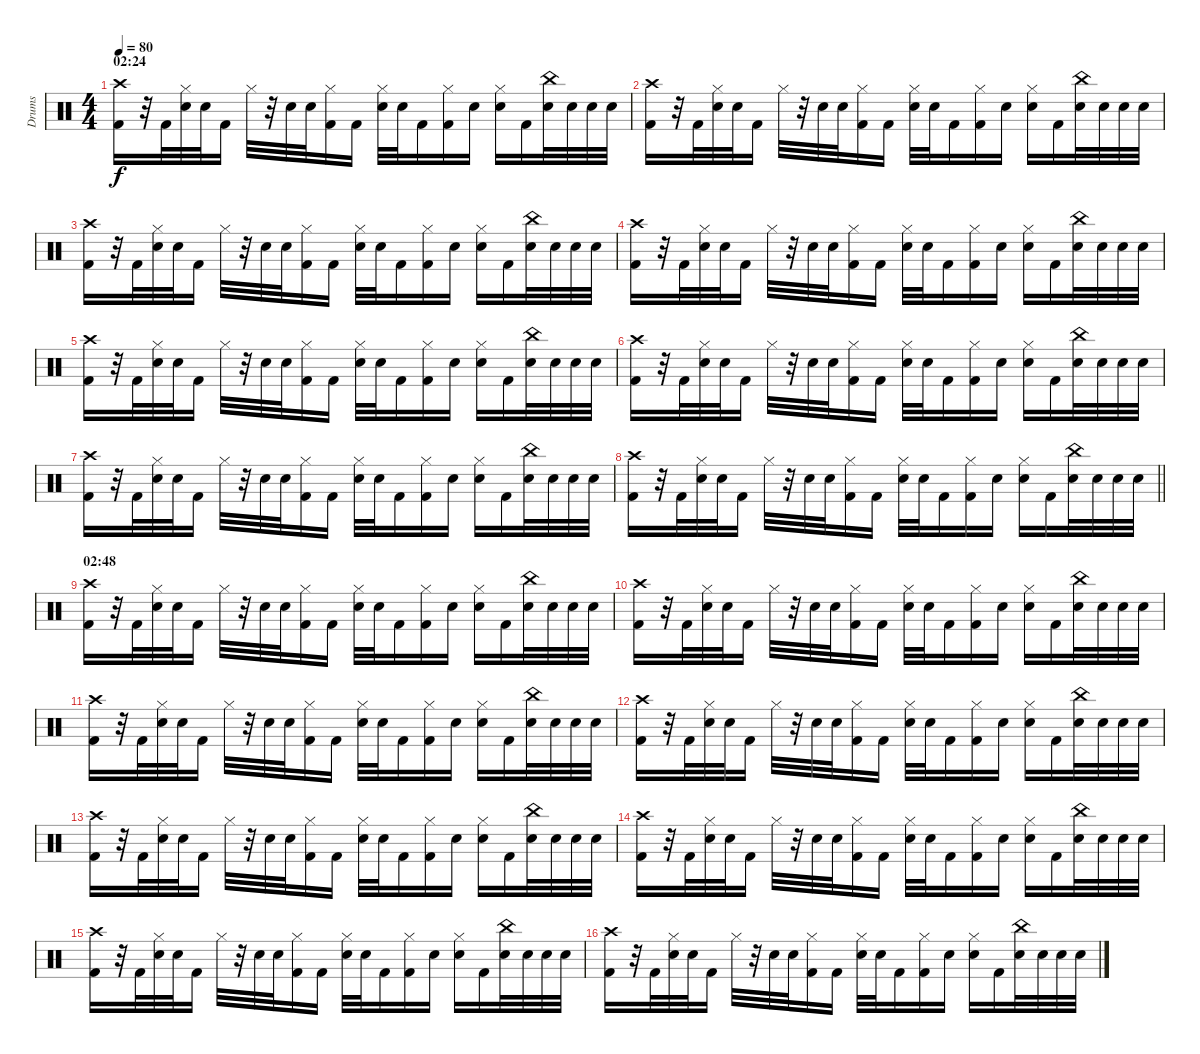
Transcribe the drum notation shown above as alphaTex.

\track ("Drums" "Drums") {instrument percussion}
\staff {score}
\articulation defaults
\ts (4 4)
\section ("" "02:24")
\tempo 80
\clef neutral
\ks c
("Crash high (hit)" "Kick (hit) 2").16{dy f} r.32 "Kick (hit) 2".32 ("Hi-Hat (closed)" "Electric Snare (hit)").32 "Electric Snare (hit)".32 "Kick (hit) 2".16 "Hi-Hat (closed)".32 r.32 "Electric Snare (hit)".32 "Electric Snare (hit)".32 ("Hi-Hat (closed)" "Kick (hit) 2").16 "Kick (hit) 2".16 ("Hi-Hat (closed)" "Electric Snare (hit)").32 "Electric Snare (hit)".32 "Kick (hit) 2".16 ("Hi-Hat (closed)" "Kick (hit) 2").16 "Electric Snare (hit)".16 ("Hi-Hat (closed)" "Electric Snare (hit)").16 "Kick (hit) 2".16 ("China (hit)" "Electric Snare (hit)").32 "Electric Snare (hit)".32 "Electric Snare (hit)".32 "Electric Snare (hit)".32 |
("Crash high (hit)" "Kick (hit) 2").16 r.32 "Kick (hit) 2".32 ("Hi-Hat (closed)" "Electric Snare (hit)").32 "Electric Snare (hit)".32 "Kick (hit) 2".16 "Hi-Hat (closed)".32 r.32 "Electric Snare (hit)".32 "Electric Snare (hit)".32 ("Hi-Hat (closed)" "Kick (hit) 2").16 "Kick (hit) 2".16 ("Hi-Hat (closed)" "Electric Snare (hit)").32 "Electric Snare (hit)".32 "Kick (hit) 2".16 ("Hi-Hat (closed)" "Kick (hit) 2").16 "Electric Snare (hit)".16 ("Hi-Hat (closed)" "Electric Snare (hit)").16 "Kick (hit) 2".16 ("China (hit)" "Electric Snare (hit)").32 "Electric Snare (hit)".32 "Electric Snare (hit)".32 "Electric Snare (hit)".32 |
("Crash high (hit)" "Kick (hit) 2").16 r.32 "Kick (hit) 2".32 ("Hi-Hat (closed)" "Electric Snare (hit)").32 "Electric Snare (hit)".32 "Kick (hit) 2".16 "Hi-Hat (closed)".32 r.32 "Electric Snare (hit)".32 "Electric Snare (hit)".32 ("Hi-Hat (closed)" "Kick (hit) 2").16 "Kick (hit) 2".16 ("Hi-Hat (closed)" "Electric Snare (hit)").32 "Electric Snare (hit)".32 "Kick (hit) 2".16 ("Hi-Hat (closed)" "Kick (hit) 2").16 "Electric Snare (hit)".16 ("Hi-Hat (closed)" "Electric Snare (hit)").16 "Kick (hit) 2".16 ("China (hit)" "Electric Snare (hit)").32 "Electric Snare (hit)".32 "Electric Snare (hit)".32 "Electric Snare (hit)".32 |
("Crash high (hit)" "Kick (hit) 2").16 r.32 "Kick (hit) 2".32 ("Hi-Hat (closed)" "Electric Snare (hit)").32 "Electric Snare (hit)".32 "Kick (hit) 2".16 "Hi-Hat (closed)".32 r.32 "Electric Snare (hit)".32 "Electric Snare (hit)".32 ("Hi-Hat (closed)" "Kick (hit) 2").16 "Kick (hit) 2".16 ("Hi-Hat (closed)" "Electric Snare (hit)").32 "Electric Snare (hit)".32 "Kick (hit) 2".16 ("Hi-Hat (closed)" "Kick (hit) 2").16 "Electric Snare (hit)".16 ("Hi-Hat (closed)" "Electric Snare (hit)").16 "Kick (hit) 2".16 ("China (hit)" "Electric Snare (hit)").32 "Electric Snare (hit)".32 "Electric Snare (hit)".32 "Electric Snare (hit)".32 |
("Crash high (hit)" "Kick (hit) 2").16 r.32 "Kick (hit) 2".32 ("Hi-Hat (closed)" "Electric Snare (hit)").32 "Electric Snare (hit)".32 "Kick (hit) 2".16 "Hi-Hat (closed)".32 r.32 "Electric Snare (hit)".32 "Electric Snare (hit)".32 ("Hi-Hat (closed)" "Kick (hit) 2").16 "Kick (hit) 2".16 ("Hi-Hat (closed)" "Electric Snare (hit)").32 "Electric Snare (hit)".32 "Kick (hit) 2".16 ("Hi-Hat (closed)" "Kick (hit) 2").16 "Electric Snare (hit)".16 ("Hi-Hat (closed)" "Electric Snare (hit)").16 "Kick (hit) 2".16 ("China (hit)" "Electric Snare (hit)").32 "Electric Snare (hit)".32 "Electric Snare (hit)".32 "Electric Snare (hit)".32 |
("Crash high (hit)" "Kick (hit) 2").16 r.32 "Kick (hit) 2".32 ("Hi-Hat (closed)" "Electric Snare (hit)").32 "Electric Snare (hit)".32 "Kick (hit) 2".16 "Hi-Hat (closed)".32 r.32 "Electric Snare (hit)".32 "Electric Snare (hit)".32 ("Hi-Hat (closed)" "Kick (hit) 2").16 "Kick (hit) 2".16 ("Hi-Hat (closed)" "Electric Snare (hit)").32 "Electric Snare (hit)".32 "Kick (hit) 2".16 ("Hi-Hat (closed)" "Kick (hit) 2").16 "Electric Snare (hit)".16 ("Hi-Hat (closed)" "Electric Snare (hit)").16 "Kick (hit) 2".16 ("China (hit)" "Electric Snare (hit)").32 "Electric Snare (hit)".32 "Electric Snare (hit)".32 "Electric Snare (hit)".32 |
("Crash high (hit)" "Kick (hit) 2").16 r.32 "Kick (hit) 2".32 ("Hi-Hat (closed)" "Electric Snare (hit)").32 "Electric Snare (hit)".32 "Kick (hit) 2".16 "Hi-Hat (closed)".32 r.32 "Electric Snare (hit)".32 "Electric Snare (hit)".32 ("Hi-Hat (closed)" "Kick (hit) 2").16 "Kick (hit) 2".16 ("Hi-Hat (closed)" "Electric Snare (hit)").32 "Electric Snare (hit)".32 "Kick (hit) 2".16 ("Hi-Hat (closed)" "Kick (hit) 2").16 "Electric Snare (hit)".16 ("Hi-Hat (closed)" "Electric Snare (hit)").16 "Kick (hit) 2".16 ("China (hit)" "Electric Snare (hit)").32 "Electric Snare (hit)".32 "Electric Snare (hit)".32 "Electric Snare (hit)".32 |
\barLineRight lightlight
("Crash high (hit)" "Kick (hit) 2").16 r.32 "Kick (hit) 2".32 ("Hi-Hat (closed)" "Electric Snare (hit)").32 "Electric Snare (hit)".32 "Kick (hit) 2".16 "Hi-Hat (closed)".32 r.32 "Electric Snare (hit)".32 "Electric Snare (hit)".32 ("Hi-Hat (closed)" "Kick (hit) 2").16 "Kick (hit) 2".16 ("Hi-Hat (closed)" "Electric Snare (hit)").32 "Electric Snare (hit)".32 "Kick (hit) 2".16 ("Hi-Hat (closed)" "Kick (hit) 2").16 "Electric Snare (hit)".16 ("Hi-Hat (closed)" "Electric Snare (hit)").16 "Kick (hit) 2".16 ("China (hit)" "Electric Snare (hit)").32 "Electric Snare (hit)".32 "Electric Snare (hit)".32 "Electric Snare (hit)".32 |
\section ("" "02:48")
("Crash high (hit)" "Kick (hit) 2").16 r.32 "Kick (hit) 2".32 ("Hi-Hat (closed)" "Electric Snare (hit)").32 "Electric Snare (hit)".32 "Kick (hit) 2".16 "Hi-Hat (closed)".32 r.32 "Electric Snare (hit)".32 "Electric Snare (hit)".32 ("Hi-Hat (closed)" "Kick (hit) 2").16 "Kick (hit) 2".16 ("Hi-Hat (closed)" "Electric Snare (hit)").32 "Electric Snare (hit)".32 "Kick (hit) 2".16 ("Hi-Hat (closed)" "Kick (hit) 2").16 "Electric Snare (hit)".16 ("Hi-Hat (closed)" "Electric Snare (hit)").16 "Kick (hit) 2".16 ("China (hit)" "Electric Snare (hit)").32 "Electric Snare (hit)".32 "Electric Snare (hit)".32 "Electric Snare (hit)".32 |
("Crash high (hit)" "Kick (hit) 2").16 r.32 "Kick (hit) 2".32 ("Hi-Hat (closed)" "Electric Snare (hit)").32 "Electric Snare (hit)".32 "Kick (hit) 2".16 "Hi-Hat (closed)".32 r.32 "Electric Snare (hit)".32 "Electric Snare (hit)".32 ("Hi-Hat (closed)" "Kick (hit) 2").16 "Kick (hit) 2".16 ("Hi-Hat (closed)" "Electric Snare (hit)").32 "Electric Snare (hit)".32 "Kick (hit) 2".16 ("Hi-Hat (closed)" "Kick (hit) 2").16 "Electric Snare (hit)".16 ("Hi-Hat (closed)" "Electric Snare (hit)").16 "Kick (hit) 2".16 ("China (hit)" "Electric Snare (hit)").32 "Electric Snare (hit)".32 "Electric Snare (hit)".32 "Electric Snare (hit)".32 |
("Crash high (hit)" "Kick (hit) 2").16 r.32 "Kick (hit) 2".32 ("Hi-Hat (closed)" "Electric Snare (hit)").32 "Electric Snare (hit)".32 "Kick (hit) 2".16 "Hi-Hat (closed)".32 r.32 "Electric Snare (hit)".32 "Electric Snare (hit)".32 ("Hi-Hat (closed)" "Kick (hit) 2").16 "Kick (hit) 2".16 ("Hi-Hat (closed)" "Electric Snare (hit)").32 "Electric Snare (hit)".32 "Kick (hit) 2".16 ("Hi-Hat (closed)" "Kick (hit) 2").16 "Electric Snare (hit)".16 ("Hi-Hat (closed)" "Electric Snare (hit)").16 "Kick (hit) 2".16 ("China (hit)" "Electric Snare (hit)").32 "Electric Snare (hit)".32 "Electric Snare (hit)".32 "Electric Snare (hit)".32 |
("Crash high (hit)" "Kick (hit) 2").16 r.32 "Kick (hit) 2".32 ("Hi-Hat (closed)" "Electric Snare (hit)").32 "Electric Snare (hit)".32 "Kick (hit) 2".16 "Hi-Hat (closed)".32 r.32 "Electric Snare (hit)".32 "Electric Snare (hit)".32 ("Hi-Hat (closed)" "Kick (hit) 2").16 "Kick (hit) 2".16 ("Hi-Hat (closed)" "Electric Snare (hit)").32 "Electric Snare (hit)".32 "Kick (hit) 2".16 ("Hi-Hat (closed)" "Kick (hit) 2").16 "Electric Snare (hit)".16 ("Hi-Hat (closed)" "Electric Snare (hit)").16 "Kick (hit) 2".16 ("China (hit)" "Electric Snare (hit)").32 "Electric Snare (hit)".32 "Electric Snare (hit)".32 "Electric Snare (hit)".32 |
("Crash high (hit)" "Kick (hit) 2").16 r.32 "Kick (hit) 2".32 ("Hi-Hat (closed)" "Electric Snare (hit)").32 "Electric Snare (hit)".32 "Kick (hit) 2".16 "Hi-Hat (closed)".32 r.32 "Electric Snare (hit)".32 "Electric Snare (hit)".32 ("Hi-Hat (closed)" "Kick (hit) 2").16 "Kick (hit) 2".16 ("Hi-Hat (closed)" "Electric Snare (hit)").32 "Electric Snare (hit)".32 "Kick (hit) 2".16 ("Hi-Hat (closed)" "Kick (hit) 2").16 "Electric Snare (hit)".16 ("Hi-Hat (closed)" "Electric Snare (hit)").16 "Kick (hit) 2".16 ("China (hit)" "Electric Snare (hit)").32 "Electric Snare (hit)".32 "Electric Snare (hit)".32 "Electric Snare (hit)".32 |
("Crash high (hit)" "Kick (hit) 2").16 r.32 "Kick (hit) 2".32 ("Hi-Hat (closed)" "Electric Snare (hit)").32 "Electric Snare (hit)".32 "Kick (hit) 2".16 "Hi-Hat (closed)".32 r.32 "Electric Snare (hit)".32 "Electric Snare (hit)".32 ("Hi-Hat (closed)" "Kick (hit) 2").16 "Kick (hit) 2".16 ("Hi-Hat (closed)" "Electric Snare (hit)").32 "Electric Snare (hit)".32 "Kick (hit) 2".16 ("Hi-Hat (closed)" "Kick (hit) 2").16 "Electric Snare (hit)".16 ("Hi-Hat (closed)" "Electric Snare (hit)").16 "Kick (hit) 2".16 ("China (hit)" "Electric Snare (hit)").32 "Electric Snare (hit)".32 "Electric Snare (hit)".32 "Electric Snare (hit)".32 |
("Crash high (hit)" "Kick (hit) 2").16 r.32 "Kick (hit) 2".32 ("Hi-Hat (closed)" "Electric Snare (hit)").32 "Electric Snare (hit)".32 "Kick (hit) 2".16 "Hi-Hat (closed)".32 r.32 "Electric Snare (hit)".32 "Electric Snare (hit)".32 ("Hi-Hat (closed)" "Kick (hit) 2").16 "Kick (hit) 2".16 ("Hi-Hat (closed)" "Electric Snare (hit)").32 "Electric Snare (hit)".32 "Kick (hit) 2".16 ("Hi-Hat (closed)" "Kick (hit) 2").16 "Electric Snare (hit)".16 ("Hi-Hat (closed)" "Electric Snare (hit)").16 "Kick (hit) 2".16 ("China (hit)" "Electric Snare (hit)").32 "Electric Snare (hit)".32 "Electric Snare (hit)".32 "Electric Snare (hit)".32 |
("Crash high (hit)" "Kick (hit) 2").16 r.32 "Kick (hit) 2".32 ("Hi-Hat (closed)" "Electric Snare (hit)").32 "Electric Snare (hit)".32 "Kick (hit) 2".16 "Hi-Hat (closed)".32 r.32 "Electric Snare (hit)".32 "Electric Snare (hit)".32 ("Hi-Hat (closed)" "Kick (hit) 2").16 "Kick (hit) 2".16 ("Hi-Hat (closed)" "Electric Snare (hit)").32 "Electric Snare (hit)".32 "Kick (hit) 2".16 ("Hi-Hat (closed)" "Kick (hit) 2").16 "Electric Snare (hit)".16 ("Hi-Hat (closed)" "Electric Snare (hit)").16 "Kick (hit) 2".16 ("China (hit)" "Electric Snare (hit)").32 "Electric Snare (hit)".32 "Electric Snare (hit)".32 "Electric Snare (hit)".32
